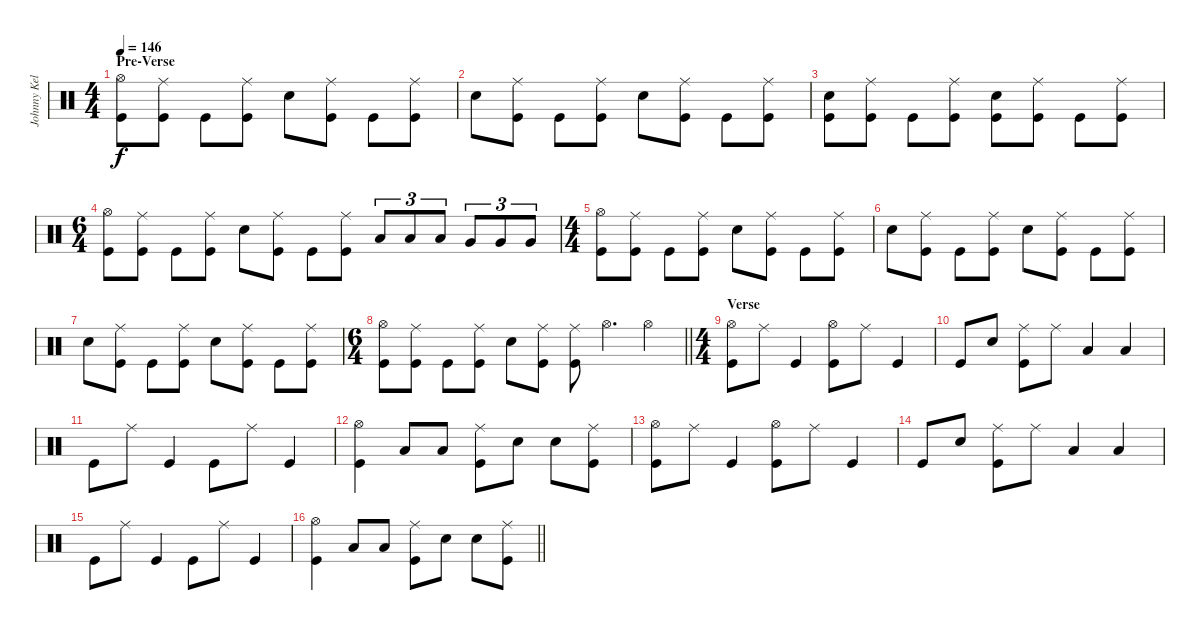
\track ("Johnny Kelly" "Johnny Kel") {instrument percussion}
\staff {score}
\articulation defaults
\ts (4 4)
\section ("" "Pre-Verse")
\tempo 146
\clef neutral
\ks c
("Kick (hit)" "Hi-Hat (open)").8{dy f} ("Kick (hit)" "Ride (middle)").8 "Kick (hit)".8 ("Kick (hit)" "Ride (middle)").8 "Snare (hit) 2".8 ("Kick (hit)" "Ride (middle)").8 "Kick (hit)".8 ("Kick (hit)" "Ride (middle)").8 |
"Snare (hit) 2".8 ("Kick (hit)" "Ride (middle)").8 "Kick (hit)".8 ("Kick (hit)" "Ride (middle)").8 "Snare (hit) 2".8 ("Kick (hit)" "Ride (middle)").8 "Kick (hit)".8 ("Kick (hit)" "Ride (middle)").8 |
("Kick (hit)" "Snare (hit) 2").8 ("Kick (hit)" "Ride (middle)").8 "Kick (hit)".8 ("Kick (hit)" "Ride (middle)").8 ("Kick (hit)" "Snare (hit) 2").8 ("Kick (hit)" "Ride (middle)").8 "Kick (hit)".8 ("Kick (hit)" "Ride (middle)").8 |
\ts (6 4)
("Kick (hit)" "Hi-Hat (open)").8 ("Kick (hit)" "Ride (middle)").8 "Kick (hit)".8 ("Kick (hit)" "Ride (middle)").8 "Snare (hit) 2".8 ("Kick (hit)" "Ride (middle)").8 "Kick (hit)".8 ("Kick (hit)" "Ride (middle)").8 "Low Tom (hit)".8{tu (3 2)} "Low Tom (hit)".8{tu (3 2)} "Low Tom (hit)".8{tu (3 2)} "Very Low Tom (hit)".8{tu (3 2)} "Very Low Tom (hit)".8{tu (3 2)} "Very Low Tom (hit)".8{tu (3 2)} |
\ts (4 4)
("Kick (hit)" "Hi-Hat (open)").8 ("Kick (hit)" "Ride (middle)").8 "Kick (hit)".8 ("Kick (hit)" "Ride (middle)").8 "Snare (hit) 2".8 ("Kick (hit)" "Ride (middle)").8 "Kick (hit)".8 ("Kick (hit)" "Ride (middle)").8 |
"Snare (hit) 2".8 ("Kick (hit)" "Ride (middle)").8 "Kick (hit)".8 ("Kick (hit)" "Ride (middle)").8 "Snare (hit) 2".8 ("Kick (hit)" "Ride (middle)").8 "Kick (hit)".8 ("Kick (hit)" "Ride (middle)").8 |
"Snare (hit) 2".8 ("Kick (hit)" "Ride (middle)").8 "Kick (hit)".8 ("Kick (hit)" "Ride (middle)").8 "Snare (hit) 2".8 ("Kick (hit)" "Ride (middle)").8 "Kick (hit)".8 ("Kick (hit)" "Ride (middle)").8 |
\ts (6 4)
\barLineRight lightlight
("Kick (hit)" "Hi-Hat (open)").8 ("Kick (hit)" "Ride (middle)").8 "Kick (hit)".8 ("Kick (hit)" "Ride (middle)").8 "Snare (hit) 2".8 ("Kick (hit)" "Ride (middle)").8 ("Kick (hit)" "Ride (middle)").8 "Hi-Hat (open)".4{d} "Hi-Hat (open)".4 |
\ts (4 4)
\section ("" "Verse")
("Kick (hit)" "Hi-Hat (open)").8 "Ride (middle)".8 "Kick (hit)".4 ("Kick (hit)" "Hi-Hat (open)").8 "Ride (middle)".8 "Kick (hit)".4 |
"Kick (hit)".8 "Snare (hit) 2".8 ("Kick (hit)" "Ride (middle)").8 "Ride (middle)".8 "Low Tom (hit)".4 "Low Tom (hit)".4 |
"Kick (hit)".8 "Ride (middle)".8 "Kick (hit)".4 "Kick (hit)".8 "Ride (middle)".8 "Kick (hit)".4 |
("Kick (hit)" "Hi-Hat (open)").4 "Low Tom (hit)".8 "Low Tom (hit)".8 ("Kick (hit)" "Ride (middle)").8 "Snare (hit) 2".8 "Snare (hit) 2".8 ("Kick (hit)" "Ride (middle)").8 |
("Kick (hit)" "Hi-Hat (open)").8 "Ride (middle)".8 "Kick (hit)".4 ("Kick (hit)" "Hi-Hat (open)").8 "Ride (middle)".8 "Kick (hit)".4 |
"Kick (hit)".8 "Snare (hit) 2".8 ("Kick (hit)" "Ride (middle)").8 "Ride (middle)".8 "Low Tom (hit)".4 "Low Tom (hit)".4 |
"Kick (hit)".8 "Ride (middle)".8 "Kick (hit)".4 "Kick (hit)".8 "Ride (middle)".8 "Kick (hit)".4 |
\barLineRight lightlight
("Kick (hit)" "Hi-Hat (open)").4 "Low Tom (hit)".8 "Low Tom (hit)".8 ("Kick (hit)" "Ride (middle)").8 "Snare (hit) 2".8 "Snare (hit) 2".8 ("Kick (hit)" "Ride (middle)").8
